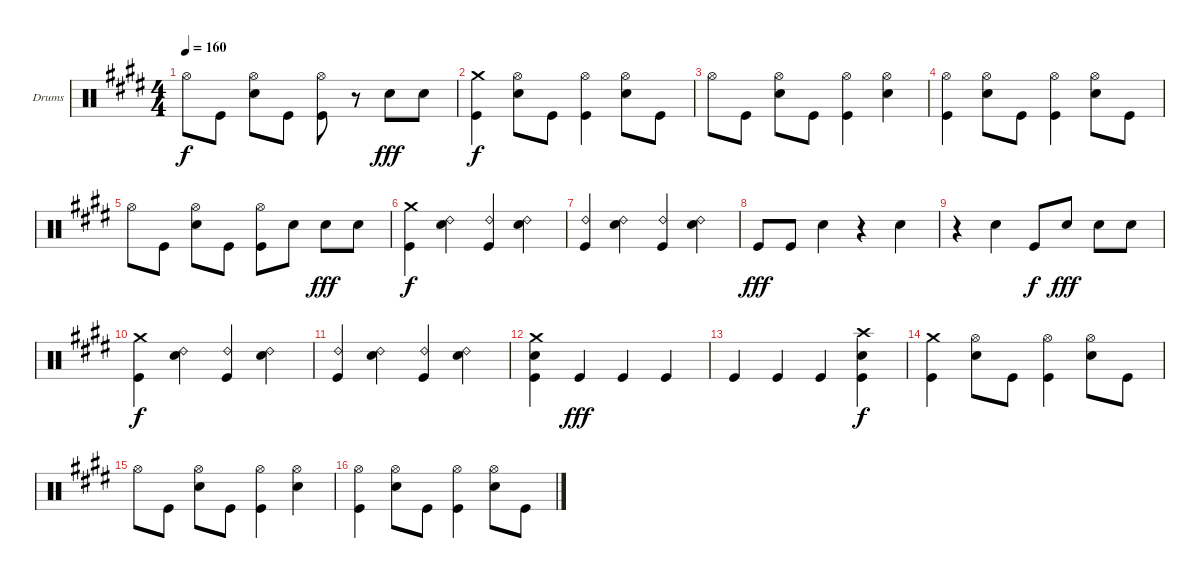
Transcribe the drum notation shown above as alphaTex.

\bracketExtendMode groupsimilarinstruments
\firstSystemTrackNameOrientation horizontal
\otherSystemsTrackNameOrientation horizontal
\track ("Drumkit" "Drums") {instrument percussion}
\staff {score}
\articulation defaults
\ts (4 4)
\tempo 160
\clef neutral
\ks e "Hi-Hat (open)".8{dy f} "Kick (hit)".8
("Hi-Hat (open)" "Snare (hit) 2").8 "Kick (hit)".8 ("Hi-Hat (open)" "Kick (hit)").8 r.8 "Snare (hit) 2".8{dy fff} "Snare (hit) 2".8 |
("Crash medium (hit)" "Kick (hit)").4{dy f} ("Hi-Hat (open)" "Snare (hit) 2").8 "Kick (hit)".8 ("Hi-Hat (open)" "Kick (hit)").4 ("Hi-Hat (open)" "Snare (hit) 2").8 "Kick (hit)".8 |
"Hi-Hat (open)".8 "Kick (hit)".8 ("Hi-Hat (open)" "Snare (hit) 2").8 "Kick (hit)".8 ("Hi-Hat (open)" "Kick (hit)").4 ("Hi-Hat (open)" "Snare (hit) 2").4 |
("Hi-Hat (open)" "Kick (hit)").4 ("Hi-Hat (open)" "Snare (hit) 2").8 "Kick (hit)".8 ("Hi-Hat (open)" "Kick (hit)").4 ("Hi-Hat (open)" "Snare (hit) 2").8 "Kick (hit)".8 |
"Hi-Hat (open)".8 "Kick (hit)".8 ("Hi-Hat (open)" "Snare (hit) 2").8 "Kick (hit)".8 ("Hi-Hat (open)" "Kick (hit)").8 "Snare (hit) 2".8 "Snare (hit) 2".8{dy fff} "Snare (hit) 2".8 |
("Crash medium (hit)" "Kick (hit)").4{dy f} ("Ride (bell) 2" "Snare (hit) 2").4 ("Ride (bell) 2" "Kick (hit)").4 ("Ride (bell) 2" "Snare (hit) 2").4 |
("Ride (bell) 2" "Kick (hit)").4 ("Ride (bell) 2" "Snare (hit) 2").4 ("Ride (bell) 2" "Kick (hit)").4 ("Ride (bell) 2" "Snare (hit) 2").4 |
"Kick (hit)".8{dy fff} "Kick (hit)".8 "Snare (hit) 2".4 r.4 "Snare (hit) 2".4 |
r.4 "Snare (hit) 2".4 "Kick (hit)".8{dy f} "Snare (hit) 2".8{dy fff} "Snare (hit) 2".8 "Snare (hit) 2".8 |
("Crash medium (hit)" "Kick (hit)").4{dy f} ("Ride (bell) 2" "Snare (hit) 2").4 ("Ride (bell) 2" "Kick (hit)").4 ("Ride (bell) 2" "Snare (hit) 2").4 |
("Ride (bell) 2" "Kick (hit)").4 ("Ride (bell) 2" "Snare (hit) 2").4 ("Ride (bell) 2" "Kick (hit)").4 ("Ride (bell) 2" "Snare (hit) 2").4 |
("Crash medium (hit)" "Snare (hit) 2" "Kick (hit)").4 "Kick (hit)".4{dy fff} "Kick (hit)".4 "Kick (hit)".4 |
"Kick (hit)".4 "Kick (hit)".4 "Kick (hit)".4 ("Crash high (hit)" "Snare (hit) 2" "Kick (hit)").4{dy f} |
("Crash medium (hit)" "Kick (hit)").4 ("Hi-Hat (open)" "Snare (hit) 2").8 "Kick (hit)".8 ("Hi-Hat (open)" "Kick (hit)").4 ("Hi-Hat (open)" "Snare (hit) 2").8 "Kick (hit)".8 |
"Hi-Hat (open)".8 "Kick (hit)".8 ("Hi-Hat (open)" "Snare (hit) 2").8 "Kick (hit)".8 ("Hi-Hat (open)" "Kick (hit)").4 ("Hi-Hat (open)" "Snare (hit) 2").4 |
("Hi-Hat (open)" "Kick (hit)").4 ("Hi-Hat (open)" "Snare (hit) 2").8 "Kick (hit)".8 ("Hi-Hat (open)" "Kick (hit)").4 ("Hi-Hat (open)" "Snare (hit) 2").8 "Kick (hit)".8
